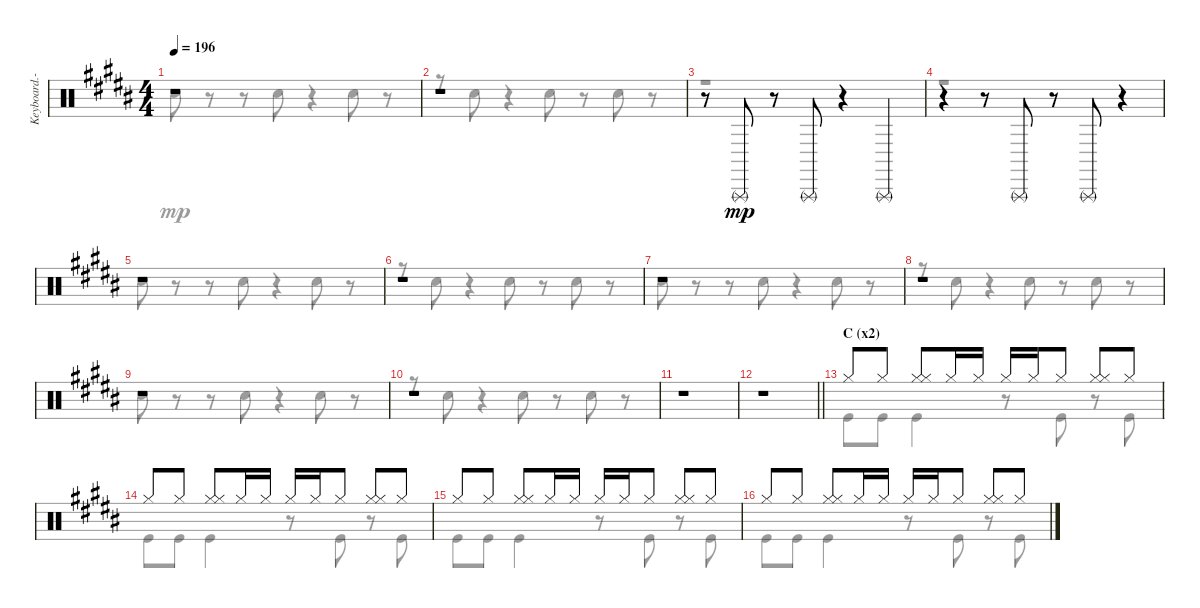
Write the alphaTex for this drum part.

\track ("Keyboard.-III" "Keyboard.-") {instrument percussion}
\staff {score}
\articulation defaults
\voice
\ts (4 4)
\tempo 196
\clef neutral
\ks b
r.1{dy mf} |
r.1 |
r.8 "Triangle (rnute)".8{dy mp} r.8 "Triangle (rnute)".8 r.4 "Triangle (rnute)".4 |
r.4 r.8 "Triangle (rnute)".8 r.8 "Triangle (rnute)".8 r.4 |
r.1 |
r.1 |
r.1 |
r.1 |
r.1 |
r.1 |
r.1 |
\barLineRight lightlight
r.1 |
\section ("" "C (x2)")
"Hi-Hat (closed)".8 "Hi-Hat (closed)".8 ("Hi-Hat (closed)" "Hi-Hat (closed)").8 "Hi-Hat (closed)".16 "Hi-Hat (closed)".16 "Hi-Hat (closed)".16 "Hi-Hat (closed)".16 "Hi-Hat (closed)".8 ("Hi-Hat (closed)" "Hi-Hat (closed)").8 "Hi-Hat (closed)".8 |
"Hi-Hat (closed)".8 "Hi-Hat (closed)".8 ("Hi-Hat (closed)" "Hi-Hat (closed)").8 "Hi-Hat (closed)".16 "Hi-Hat (closed)".16 "Hi-Hat (closed)".16 "Hi-Hat (closed)".16 "Hi-Hat (closed)".8 ("Hi-Hat (closed)" "Hi-Hat (closed)").8 "Hi-Hat (closed)".8 |
"Hi-Hat (closed)".8 "Hi-Hat (closed)".8 ("Hi-Hat (closed)" "Hi-Hat (closed)").8 "Hi-Hat (closed)".16 "Hi-Hat (closed)".16 "Hi-Hat (closed)".16 "Hi-Hat (closed)".16 "Hi-Hat (closed)".8 ("Hi-Hat (closed)" "Hi-Hat (closed)").8 "Hi-Hat (closed)".8 |
"Hi-Hat (closed)".8 "Hi-Hat (closed)".8 ("Hi-Hat (closed)" "Hi-Hat (closed)").8 "Hi-Hat (closed)".16 "Hi-Hat (closed)".16 "Hi-Hat (closed)".16 "Hi-Hat (closed)".16 "Hi-Hat (closed)".8 ("Hi-Hat (closed)" "Hi-Hat (closed)").8 "Hi-Hat (closed)".8
\voice
\clef neutral
\ottava regular
\simile none
\ks b "Hand Clap (hit)".8{dy mp}
r.8 r.8 "Hand Clap (hit)".8 r.4 "Hand Clap (hit)".8 r.8 |
r.8 "Hand Clap (hit)".8 r.4 "Hand Clap (hit)".8 r.8 "Hand Clap (hit)".8 r.8 |
r.1 |
r.1 |
"Hand Clap (hit)".8 r.8 r.8 "Hand Clap (hit)".8 r.4 "Hand Clap (hit)".8 r.8 |
r.8 "Hand Clap (hit)".8 r.4 "Hand Clap (hit)".8 r.8 "Hand Clap (hit)".8 r.8 |
"Hand Clap (hit)".8 r.8 r.8 "Hand Clap (hit)".8 r.4 "Hand Clap (hit)".8 r.8 |
r.8 "Hand Clap (hit)".8 r.4 "Hand Clap (hit)".8 r.8 "Hand Clap (hit)".8 r.8 |
"Hand Clap (hit)".8 r.8 r.8 "Hand Clap (hit)".8 r.4 "Hand Clap (hit)".8 r.8 |
r.8 "Hand Clap (hit)".8 r.4 "Hand Clap (hit)".8 r.8 "Hand Clap (hit)".8 r.8 |
|
\barLineRight lightlight
|
"Kick (hit)".8 "Kick (hit)".8 "Kick (hit)".4 r.8 "Kick (hit)".8 r.8 "Kick (hit)".8 |
"Kick (hit)".8 "Kick (hit)".8 "Kick (hit)".4 r.8 "Kick (hit)".8 r.8 "Kick (hit)".8 |
"Kick (hit)".8 "Kick (hit)".8 "Kick (hit)".4 r.8 "Kick (hit)".8 r.8 "Kick (hit)".8 |
"Kick (hit)".8 "Kick (hit)".8 "Kick (hit)".4 r.8 "Kick (hit)".8 r.8 "Kick (hit)".8
